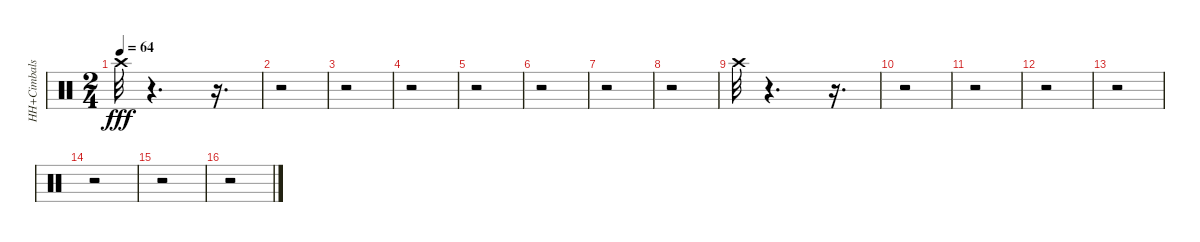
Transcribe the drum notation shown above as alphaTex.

\track ("HH+Cimbals" "HH+Cimbals") {instrument percussion}
\staff {score}
\articulation defaults
\ts (2 4)
\tempo 64
\clef neutral
\ks c "Crash high (hit)".32{dy fff}
r.4{d} r.16{d} |
r.2 |
r.2 |
r.2 |
r.2 |
r.2 |
r.2 |
r.2 |
"Crash high (hit)".32 r.4{d} r.16{d} |
r.2 |
r.2 |
r.2 |
r.2 |
r.2 |
r.2 |
r.2
